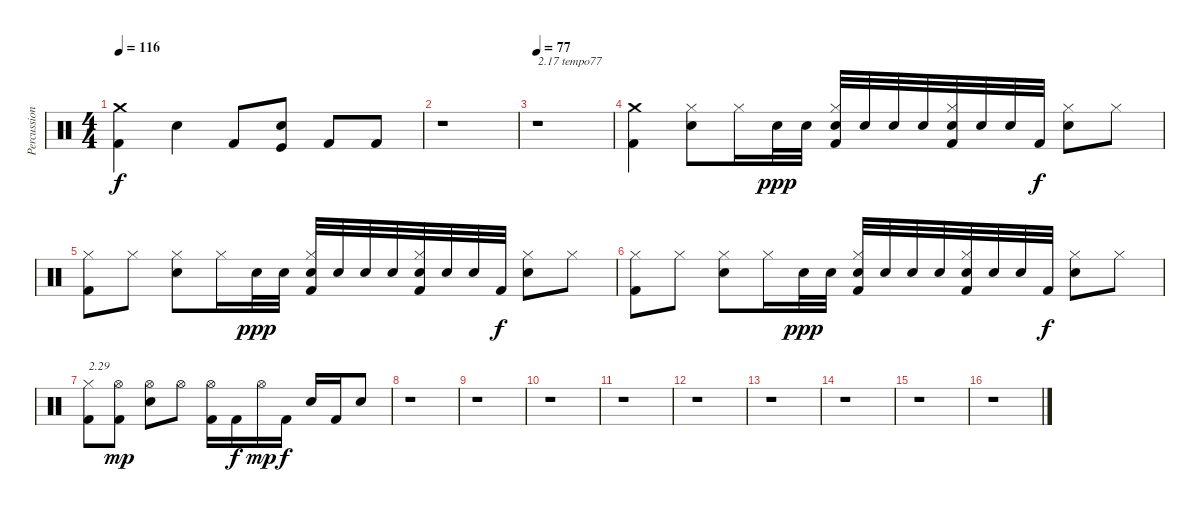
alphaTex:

\track ("Percussions" "Percussion") {instrument percussion}
\staff {score}
\articulation defaults
\ts (4 4)
\tempo 116
\clef neutral
\ks c
("Kick (hit) 2" "Crash medium (hit)").4{dy f} "Electric Snare (hit)".4 "Kick (hit) 2".8 ("Electric Snare (hit)" "Kick (hit)").8 "Kick (hit) 2".8 "Kick (hit) 2".8 |
r.1 |
\tempo 77
r.1{txt "2.17 tempo77"} |
("Kick (hit) 2" "Crash medium (hit)").4 ("Electric Snare (hit)" "Hi-Hat (closed)").8 "Hi-Hat (closed)".16 "Snare (hit) 2".32{dy ppp} "Snare (hit) 2".32 ("Kick (hit) 2" "Hi-Hat (closed)" "Snare (hit) 2").32 "Snare (hit) 2".32 "Snare (hit) 2".32 "Snare (hit) 2".32 ("Kick (hit) 2" "Hi-Hat (closed)" "Snare (hit) 2").32 "Snare (hit) 2".32 "Snare (hit) 2".32 "Kick (hit) 2".32{dy f} ("Electric Snare (hit)" "Hi-Hat (closed)").8 "Hi-Hat (closed)".8 |
("Kick (hit) 2" "Hi-Hat (closed)").8 "Hi-Hat (closed)".8 ("Electric Snare (hit)" "Hi-Hat (closed)").8 "Hi-Hat (closed)".16 "Snare (hit) 2".32{dy ppp} "Snare (hit) 2".32 ("Kick (hit) 2" "Hi-Hat (closed)" "Snare (hit) 2").32 "Snare (hit) 2".32 "Snare (hit) 2".32 "Snare (hit) 2".32 ("Kick (hit) 2" "Hi-Hat (closed)" "Snare (hit) 2").32 "Snare (hit) 2".32 "Snare (hit) 2".32 "Kick (hit) 2".32{dy f} ("Electric Snare (hit)" "Hi-Hat (closed)").8 "Hi-Hat (closed)".8 |
("Kick (hit) 2" "Hi-Hat (closed)").8 "Hi-Hat (closed)".8 ("Electric Snare (hit)" "Hi-Hat (closed)").8 "Hi-Hat (closed)".16 "Snare (hit) 2".32{dy ppp} "Snare (hit) 2".32 ("Kick (hit) 2" "Hi-Hat (closed)" "Snare (hit) 2").32 "Snare (hit) 2".32 "Snare (hit) 2".32 "Snare (hit) 2".32 ("Kick (hit) 2" "Hi-Hat (closed)" "Snare (hit) 2").32 "Snare (hit) 2".32 "Snare (hit) 2".32 "Kick (hit) 2".32{dy f} ("Electric Snare (hit)" "Hi-Hat (closed)").8 "Hi-Hat (closed)".8 |
("Kick (hit) 2" "Hi-Hat (closed)").8{txt "2.29"} ("Kick (hit) 2" "Hi-Hat (open)").8{dy mp} ("Electric Snare (hit)" "Hi-Hat (open)").8 "Hi-Hat (open)".8 ("Kick (hit) 2" "Hi-Hat (open)").16 "Kick (hit) 2".16{dy f} "Hi-Hat (open)".16{dy mp} "Kick (hit) 2".16{dy f} "Electric Snare (hit)".16 "Kick (hit) 2".16 "Electric Snare (hit)".8 |
r.1 |
r.1 |
r.1 |
r.1 |
r.1 |
r.1 |
r.1 |
r.1 |
r.1
